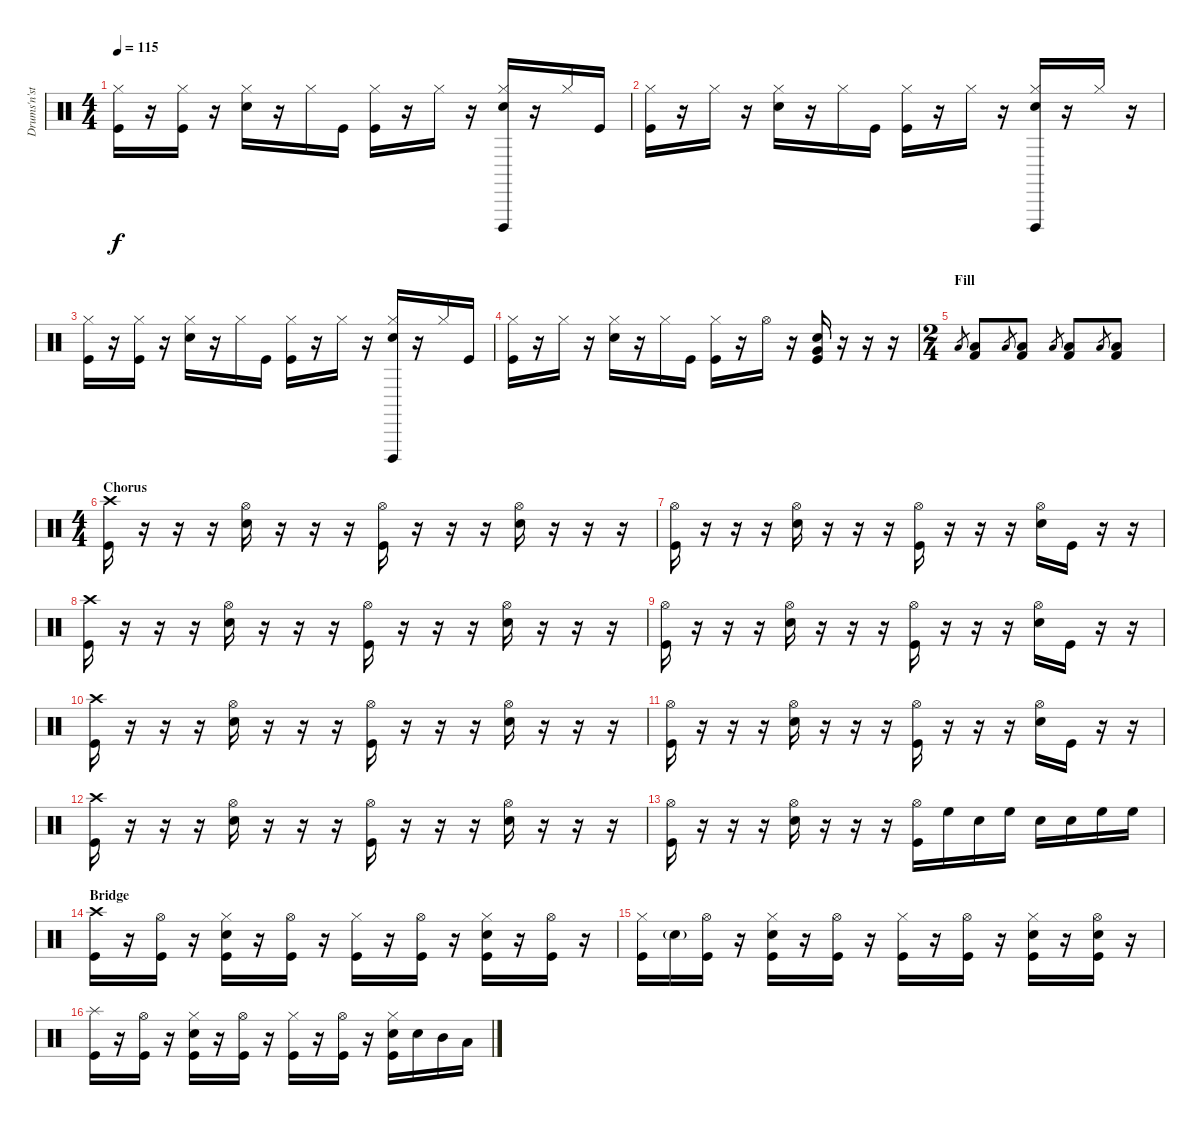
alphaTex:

\track ("Drums'n'stuff" "Drums'n'st") {instrument percussion}
\staff {score}
\articulation defaults
\ts (4 4)
\tempo 115
\clef neutral
\ks c
("Hi-Hat (closed)" "Kick (hit)").16{dy f} r.16 ("Hi-Hat (closed)" "Kick (hit)").16 r.16 ("Hi-Hat (closed)" "Electric Snare (hit)").16 r.16 "Hi-Hat (closed)".16 "Kick (hit)".16 ("Hi-Hat (closed)" "Kick (hit)").16 r.16 "Hi-Hat (closed)".16 r.16 ("Hi-Hat (closed)" "Electric Snare (hit)" "Cuica (open)").16 r.16 "Hi-Hat (closed)".16 "Kick (hit)".16 |
("Hi-Hat (closed)" "Kick (hit)").16 r.16 "Hi-Hat (closed)".16 r.16 ("Hi-Hat (closed)" "Electric Snare (hit)").16 r.16 "Hi-Hat (closed)".16 "Kick (hit)".16 ("Hi-Hat (closed)" "Kick (hit)").16 r.16 "Hi-Hat (closed)".16 r.16 ("Hi-Hat (closed)" "Electric Snare (hit)" "Cuica (open)").16 r.16 "Hi-Hat (closed)".16 r.16 |
("Hi-Hat (closed)" "Kick (hit)").16 r.16 ("Hi-Hat (closed)" "Kick (hit)").16 r.16 ("Hi-Hat (closed)" "Electric Snare (hit)").16 r.16 "Hi-Hat (closed)".16 "Kick (hit)".16 ("Hi-Hat (closed)" "Kick (hit)").16 r.16 "Hi-Hat (closed)".16 r.16 ("Hi-Hat (closed)" "Electric Snare (hit)" "Cuica (open)").16 r.16 "Hi-Hat (closed)".16 "Kick (hit)".16 |
("Hi-Hat (closed)" "Kick (hit)").16 r.16 "Hi-Hat (closed)".16 r.16 ("Hi-Hat (closed)" "Electric Snare (hit)").16 r.16 "Hi-Hat (closed)".16 "Kick (hit)".16 ("Hi-Hat (closed)" "Kick (hit)").16 r.16 "Hi-Hat (open)".16 r.16 ("Electric Snare (hit)" "Very Low Tom (hit)" "Kick (hit)").16 r.16 r.16 r.16 |
\ts (2 4)
\section ("" "Fill")
"Low Tom (hit)".8{gr} ("Low Tom (hit)" "Kick (hit) 2").8 "Low Tom (hit)".8{gr} ("Low Tom (hit)" "Kick (hit) 2").8 "Low Tom (hit)".8{gr} ("Low Tom (hit)" "Kick (hit) 2").8 "Low Tom (hit)".8{gr} ("Low Tom (hit)" "Kick (hit) 2").8 |
\ts (4 4)
\section ("" "Chorus")
("Crash high (hit)" "Kick (hit)").16 r.16 r.16 r.16 ("Hi-Hat (open)" "Electric Snare (hit)").16 r.16 r.16 r.16 ("Hi-Hat (open)" "Kick (hit)").16 r.16 r.16 r.16 ("Hi-Hat (open)" "Electric Snare (hit)").16 r.16 r.16 r.16 |
("Hi-Hat (open)" "Kick (hit)").16 r.16 r.16 r.16 ("Hi-Hat (open)" "Electric Snare (hit)").16 r.16 r.16 r.16 ("Hi-Hat (open)" "Kick (hit)").16 r.16 r.16 r.16 ("Hi-Hat (open)" "Electric Snare (hit)").16 "Kick (hit)".16 r.16 r.16 |
("Crash high (hit)" "Kick (hit)").16 r.16 r.16 r.16 ("Hi-Hat (open)" "Electric Snare (hit)").16 r.16 r.16 r.16 ("Hi-Hat (open)" "Kick (hit)").16 r.16 r.16 r.16 ("Hi-Hat (open)" "Electric Snare (hit)").16 r.16 r.16 r.16 |
("Hi-Hat (open)" "Kick (hit)").16 r.16 r.16 r.16 ("Hi-Hat (open)" "Electric Snare (hit)").16 r.16 r.16 r.16 ("Hi-Hat (open)" "Kick (hit)").16 r.16 r.16 r.16 ("Hi-Hat (open)" "Electric Snare (hit)").16 "Kick (hit)".16 r.16 r.16 |
("Crash high (hit)" "Kick (hit)").16 r.16 r.16 r.16 ("Hi-Hat (open)" "Electric Snare (hit)").16 r.16 r.16 r.16 ("Hi-Hat (open)" "Kick (hit)").16 r.16 r.16 r.16 ("Hi-Hat (open)" "Electric Snare (hit)").16 r.16 r.16 r.16 |
("Hi-Hat (open)" "Kick (hit)").16 r.16 r.16 r.16 ("Hi-Hat (open)" "Electric Snare (hit)").16 r.16 r.16 r.16 ("Hi-Hat (open)" "Kick (hit)").16 r.16 r.16 r.16 ("Hi-Hat (open)" "Electric Snare (hit)").16 "Kick (hit)".16 r.16 r.16 |
("Crash high (hit)" "Kick (hit)").16 r.16 r.16 r.16 ("Hi-Hat (open)" "Electric Snare (hit)").16 r.16 r.16 r.16 ("Hi-Hat (open)" "Kick (hit)").16 r.16 r.16 r.16 ("Hi-Hat (open)" "Electric Snare (hit)").16 r.16 r.16 r.16 |
("Hi-Hat (open)" "Kick (hit)").16 r.16 r.16 r.16 ("Hi-Hat (open)" "Electric Snare (hit)").16 r.16 r.16 r.16 ("Hi-Hat (open)" "Kick (hit)").16 "High Floor Tom (hit)".16 "Electric Snare (hit)".16 "High Floor Tom (hit)".16 "Electric Snare (hit)".16 "Electric Snare (hit)".16 "High Floor Tom (hit)".16 "High Floor Tom (hit)".16 |
\section ("" "Bridge")
("Crash high (hit)" "Kick (hit)").16 r.16 ("Hi-Hat (open)" "Kick (hit)").16 r.16 ("Hi-Hat (closed)" "Electric Snare (hit)" "Kick (hit)").16 r.16 ("Hi-Hat (open)" "Kick (hit)").16 r.16 ("Hi-Hat (closed)" "Kick (hit)").16 r.16 ("Hi-Hat (open)" "Kick (hit)").16 r.16 ("Hi-Hat (closed)" "Electric Snare (hit)" "Kick (hit)").16 r.16 ("Hi-Hat (open)" "Kick (hit)").16 r.16 |
("Hi-Hat (closed)" "Kick (hit)").16 "Electric Snare (hit)"{g}.16 ("Hi-Hat (open)" "Kick (hit)").16 r.16 ("Hi-Hat (closed)" "Electric Snare (hit)" "Kick (hit)").16 r.16 ("Hi-Hat (open)" "Kick (hit)").16 r.16 ("Hi-Hat (closed)" "Kick (hit)").16 r.16 ("Hi-Hat (open)" "Kick (hit)").16 r.16 ("Hi-Hat (closed)" "Electric Snare (hit)" "Kick (hit)").16 r.16 ("Hi-Hat (open)" "Electric Snare (hit)" "Kick (hit)").16 r.16 |
("Splash (hit)" "Kick (hit)").16 r.16 ("Hi-Hat (open)" "Kick (hit)").16 r.16 ("Hi-Hat (closed)" "Electric Snare (hit)" "Kick (hit)").16 r.16 ("Hi-Hat (open)" "Kick (hit)").16 r.16 ("Hi-Hat (closed)" "Kick (hit)").16 r.16 ("Hi-Hat (open)" "Kick (hit)").16 r.16 ("Hi-Hat (closed)" "Electric Snare (hit)" "Kick (hit)").16 "Electric Snare (hit)".16 "Mid Tom (hit)".16 "Low Tom (hit)".16
